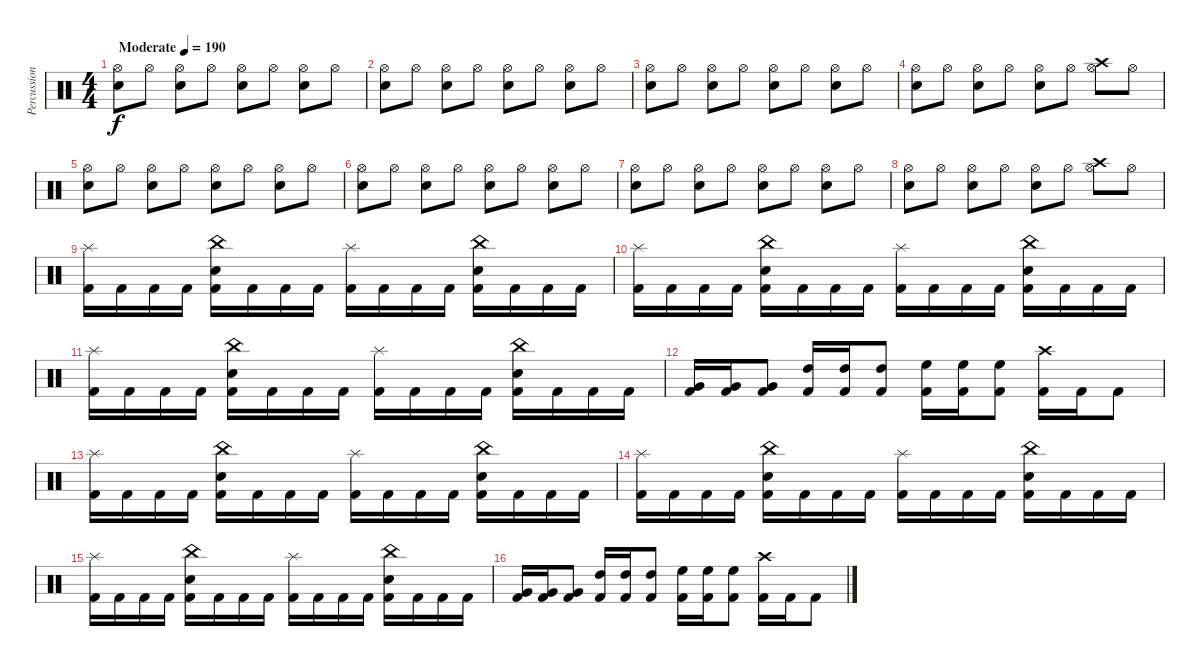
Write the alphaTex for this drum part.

\track ("Percussion" "Percussion") {instrument percussion}
\staff {score}
\articulation defaults
\ts (4 4)
\tempo (190 "Moderate")
\clef neutral
\ks c
("Hi-Hat (open)" "Electric Snare (hit)").8{dy f} "Hi-Hat (open)".8 ("Hi-Hat (open)" "Electric Snare (hit)").8 "Hi-Hat (open)".8 ("Hi-Hat (open)" "Electric Snare (hit)").8 "Hi-Hat (open)".8 ("Hi-Hat (open)" "Electric Snare (hit)").8 "Hi-Hat (open)".8 |
("Hi-Hat (open)" "Electric Snare (hit)").8 "Hi-Hat (open)".8 ("Hi-Hat (open)" "Electric Snare (hit)").8 "Hi-Hat (open)".8 ("Hi-Hat (open)" "Electric Snare (hit)").8 "Hi-Hat (open)".8 ("Hi-Hat (open)" "Electric Snare (hit)").8 "Hi-Hat (open)".8 |
("Hi-Hat (open)" "Electric Snare (hit)").8 "Hi-Hat (open)".8 ("Hi-Hat (open)" "Electric Snare (hit)").8 "Hi-Hat (open)".8 ("Hi-Hat (open)" "Electric Snare (hit)").8 "Hi-Hat (open)".8 ("Hi-Hat (open)" "Electric Snare (hit)").8 "Hi-Hat (open)".8 |
("Hi-Hat (open)" "Electric Snare (hit)").8 "Hi-Hat (open)".8 ("Hi-Hat (open)" "Electric Snare (hit)").8 "Hi-Hat (open)".8 ("Hi-Hat (open)" "Electric Snare (hit)").8 "Hi-Hat (open)".8 ("Hi-Hat (open)" "Crash high (hit)").8 "Hi-Hat (open)".8 |
("Hi-Hat (open)" "Electric Snare (hit)").8 "Hi-Hat (open)".8 ("Hi-Hat (open)" "Electric Snare (hit)").8 "Hi-Hat (open)".8 ("Hi-Hat (open)" "Electric Snare (hit)").8 "Hi-Hat (open)".8 ("Hi-Hat (open)" "Electric Snare (hit)").8 "Hi-Hat (open)".8 |
("Hi-Hat (open)" "Electric Snare (hit)").8 "Hi-Hat (open)".8 ("Hi-Hat (open)" "Electric Snare (hit)").8 "Hi-Hat (open)".8 ("Hi-Hat (open)" "Electric Snare (hit)").8 "Hi-Hat (open)".8 ("Hi-Hat (open)" "Electric Snare (hit)").8 "Hi-Hat (open)".8 |
("Hi-Hat (open)" "Electric Snare (hit)").8 "Hi-Hat (open)".8 ("Hi-Hat (open)" "Electric Snare (hit)").8 "Hi-Hat (open)".8 ("Hi-Hat (open)" "Electric Snare (hit)").8 "Hi-Hat (open)".8 ("Hi-Hat (open)" "Electric Snare (hit)").8 "Hi-Hat (open)".8 |
("Hi-Hat (open)" "Electric Snare (hit)").8 "Hi-Hat (open)".8 ("Hi-Hat (open)" "Electric Snare (hit)").8 "Hi-Hat (open)".8 ("Hi-Hat (open)" "Electric Snare (hit)").8 "Hi-Hat (open)".8 ("Hi-Hat (open)" "Crash high (hit)").8 "Hi-Hat (open)".8 |
("Kick (hit) 2" "Splash (hit)").16 "Kick (hit) 2".16 "Kick (hit) 2".16 "Kick (hit) 2".16 ("Kick (hit) 2" "China (hit)" "Electric Snare (hit)").16 "Kick (hit) 2".16 "Kick (hit) 2".16 "Kick (hit) 2".16 ("Kick (hit) 2" "Splash (hit)").16 "Kick (hit) 2".16 "Kick (hit) 2".16 "Kick (hit) 2".16 ("Kick (hit) 2" "China (hit)" "Electric Snare (hit)").16 "Kick (hit) 2".16 "Kick (hit) 2".16 "Kick (hit) 2".16 |
("Kick (hit) 2" "Splash (hit)").16 "Kick (hit) 2".16 "Kick (hit) 2".16 "Kick (hit) 2".16 ("Kick (hit) 2" "China (hit)" "Electric Snare (hit)").16 "Kick (hit) 2".16 "Kick (hit) 2".16 "Kick (hit) 2".16 ("Kick (hit) 2" "Splash (hit)").16 "Kick (hit) 2".16 "Kick (hit) 2".16 "Kick (hit) 2".16 ("Kick (hit) 2" "China (hit)" "Electric Snare (hit)").16 "Kick (hit) 2".16 "Kick (hit) 2".16 "Kick (hit) 2".16 |
("Kick (hit) 2" "Splash (hit)").16 "Kick (hit) 2".16 "Kick (hit) 2".16 "Kick (hit) 2".16 ("Kick (hit) 2" "China (hit)" "Electric Snare (hit)").16 "Kick (hit) 2".16 "Kick (hit) 2".16 "Kick (hit) 2".16 ("Kick (hit) 2" "Splash (hit)").16 "Kick (hit) 2".16 "Kick (hit) 2".16 "Kick (hit) 2".16 ("Kick (hit) 2" "China (hit)" "Electric Snare (hit)").16 "Kick (hit) 2".16 "Kick (hit) 2".16 "Kick (hit) 2".16 |
("Kick (hit) 2" "Very Low Tom (hit)").16 ("Kick (hit) 2" "Very Low Tom (hit)").16 ("Kick (hit) 2" "Very Low Tom (hit)").8 ("Kick (hit) 2" "High Tom (hit)").16 ("Kick (hit) 2" "High Tom (hit)").16 ("Kick (hit) 2" "High Tom (hit)").8 ("Kick (hit) 2" "High Floor Tom (hit)").16 ("Kick (hit) 2" "High Floor Tom (hit)").16 ("Kick (hit) 2" "High Floor Tom (hit)").8 ("Kick (hit) 2" "Crash high (hit)").16 "Kick (hit) 2".16 "Kick (hit) 2".8 |
("Kick (hit) 2" "Splash (hit)").16 "Kick (hit) 2".16 "Kick (hit) 2".16 "Kick (hit) 2".16 ("Kick (hit) 2" "China (hit)" "Electric Snare (hit)").16 "Kick (hit) 2".16 "Kick (hit) 2".16 "Kick (hit) 2".16 ("Kick (hit) 2" "Splash (hit)").16 "Kick (hit) 2".16 "Kick (hit) 2".16 "Kick (hit) 2".16 ("Kick (hit) 2" "China (hit)" "Electric Snare (hit)").16 "Kick (hit) 2".16 "Kick (hit) 2".16 "Kick (hit) 2".16 |
("Kick (hit) 2" "Splash (hit)").16 "Kick (hit) 2".16 "Kick (hit) 2".16 "Kick (hit) 2".16 ("Kick (hit) 2" "China (hit)" "Electric Snare (hit)").16 "Kick (hit) 2".16 "Kick (hit) 2".16 "Kick (hit) 2".16 ("Kick (hit) 2" "Splash (hit)").16 "Kick (hit) 2".16 "Kick (hit) 2".16 "Kick (hit) 2".16 ("Kick (hit) 2" "China (hit)" "Electric Snare (hit)").16 "Kick (hit) 2".16 "Kick (hit) 2".16 "Kick (hit) 2".16 |
("Kick (hit) 2" "Splash (hit)").16 "Kick (hit) 2".16 "Kick (hit) 2".16 "Kick (hit) 2".16 ("Kick (hit) 2" "China (hit)" "Electric Snare (hit)").16 "Kick (hit) 2".16 "Kick (hit) 2".16 "Kick (hit) 2".16 ("Kick (hit) 2" "Splash (hit)").16 "Kick (hit) 2".16 "Kick (hit) 2".16 "Kick (hit) 2".16 ("Kick (hit) 2" "China (hit)" "Electric Snare (hit)").16 "Kick (hit) 2".16 "Kick (hit) 2".16 "Kick (hit) 2".16 |
("Kick (hit) 2" "Very Low Tom (hit)").16 ("Kick (hit) 2" "Very Low Tom (hit)").16 ("Kick (hit) 2" "Very Low Tom (hit)").8 ("Kick (hit) 2" "High Tom (hit)").16 ("Kick (hit) 2" "High Tom (hit)").16 ("Kick (hit) 2" "High Tom (hit)").8 ("Kick (hit) 2" "High Floor Tom (hit)").16 ("Kick (hit) 2" "High Floor Tom (hit)").16 ("Kick (hit) 2" "High Floor Tom (hit)").8 ("Kick (hit) 2" "Crash high (hit)").16 "Kick (hit) 2".16 "Kick (hit) 2".8
